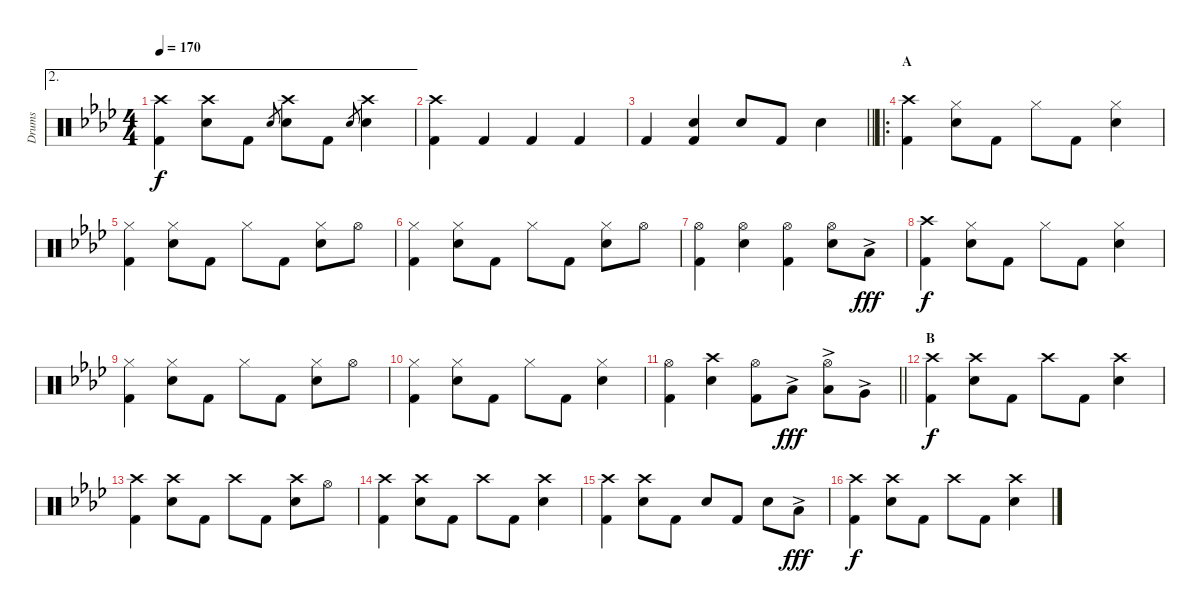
\track ("Drums" "Drums") {instrument percussion}
\staff {score}
\articulation defaults
\ae 2
\ts (4 4)
\tempo 170
\clef neutral
\ks ab
("Crash high (hit)" "Kick (hit) 2").4{dy f} ("Crash high (hit)" "Snare (hit) 2").8 "Kick (hit) 2".8 "Snare (hit) 2".8{gr} ("Crash high (hit)" "Snare (hit) 2").8 "Kick (hit) 2".8 "Snare (hit) 2".8{gr} ("Crash high (hit)" "Snare (hit) 2").4 |
("Crash high (hit)" "Kick (hit) 2").4 "Kick (hit) 2".4 "Kick (hit) 2".4 "Kick (hit) 2".4 |
\barLineRight lightlight "Kick (hit) 2".4
("Snare (hit) 2" "Kick (hit) 2").4 "Snare (hit) 2".8 "Kick (hit) 2".8 "Snare (hit) 2".4 |
\ro
\section ("" "A")
("Crash high (hit)" "Kick (hit) 2").4 ("Hi-Hat (closed)" "Snare (hit) 2").8 "Kick (hit) 2".8 "Hi-Hat (closed)".8 "Kick (hit) 2".8 ("Hi-Hat (closed)" "Snare (hit) 2").4 |
("Hi-Hat (closed)" "Kick (hit) 2").4 ("Hi-Hat (closed)" "Snare (hit) 2").8 "Kick (hit) 2".8 "Hi-Hat (closed)".8 "Kick (hit) 2".8 ("Hi-Hat (closed)" "Snare (hit) 2").8 "Hi-Hat (open)".8 |
("Hi-Hat (closed)" "Kick (hit) 2").4 ("Hi-Hat (closed)" "Snare (hit) 2").8 "Kick (hit) 2".8 "Hi-Hat (closed)".8 "Kick (hit) 2".8 ("Hi-Hat (closed)" "Snare (hit) 2").8 "Hi-Hat (open)".8 |
("Hi-Hat (open)" "Kick (hit) 2").4 ("Hi-Hat (open)" "Snare (hit) 2").4 ("Hi-Hat (open)" "Kick (hit) 2").4 ("Hi-Hat (open)" "Snare (hit) 2").8 "Low Tom (hit)"{ac}.8{dy fff} |
("Crash high (hit)" "Kick (hit) 2").4{dy f} ("Hi-Hat (closed)" "Snare (hit) 2").8 "Kick (hit) 2".8 "Hi-Hat (closed)".8 "Kick (hit) 2".8 ("Hi-Hat (closed)" "Snare (hit) 2").4 |
("Hi-Hat (closed)" "Kick (hit) 2").4 ("Hi-Hat (closed)" "Snare (hit) 2").8 "Kick (hit) 2".8 "Hi-Hat (closed)".8 "Kick (hit) 2".8 ("Hi-Hat (closed)" "Snare (hit) 2").8 "Hi-Hat (open)".8 |
("Hi-Hat (closed)" "Kick (hit) 2").4 ("Hi-Hat (closed)" "Snare (hit) 2").8 "Kick (hit) 2".8 "Hi-Hat (closed)".8 "Kick (hit) 2".8 ("Hi-Hat (closed)" "Snare (hit) 2").4 |
\barLineRight lightlight
("Hi-Hat (open)" "Kick (hit) 2").4 ("Crash high (hit)" "Snare (hit) 2").4 ("Hi-Hat (open)" "Kick (hit) 2").8 "Low Tom (hit)"{ac}.8{dy fff} ("Hi-Hat (open)" "Low Tom (hit)"{ac}).8 "Very Low Tom (hit)"{ac}.8 |
\section ("" "B")
("Crash high (hit)" "Kick (hit) 2").4{dy f} ("Crash high (hit)" "Snare (hit) 2").8 "Kick (hit) 2".8 "Crash high (hit)".8 "Kick (hit) 2".8 ("Crash high (hit)" "Snare (hit) 2").4 |
("Crash high (hit)" "Kick (hit) 2").4 ("Crash high (hit)" "Snare (hit) 2").8 "Kick (hit) 2".8 "Crash high (hit)".8 "Kick (hit) 2".8 ("Crash high (hit)" "Snare (hit) 2").8 "Hi-Hat (open)".8 |
("Crash high (hit)" "Kick (hit) 2").4 ("Crash high (hit)" "Snare (hit) 2").8 "Kick (hit) 2".8 "Crash high (hit)".8 "Kick (hit) 2".8 ("Crash high (hit)" "Snare (hit) 2").4 |
("Crash high (hit)" "Kick (hit) 2").4 ("Crash high (hit)" "Snare (hit) 2").8 "Kick (hit) 2".8 "Snare (hit) 2".8 "Kick (hit) 2".8 "Snare (hit) 2".8 "Low Tom (hit)"{ac}.8{dy fff} |
("Crash high (hit)" "Kick (hit) 2").4{dy f} ("Crash high (hit)" "Snare (hit) 2").8 "Kick (hit) 2".8 "Crash high (hit)".8 "Kick (hit) 2".8 ("Crash high (hit)" "Snare (hit) 2").4
